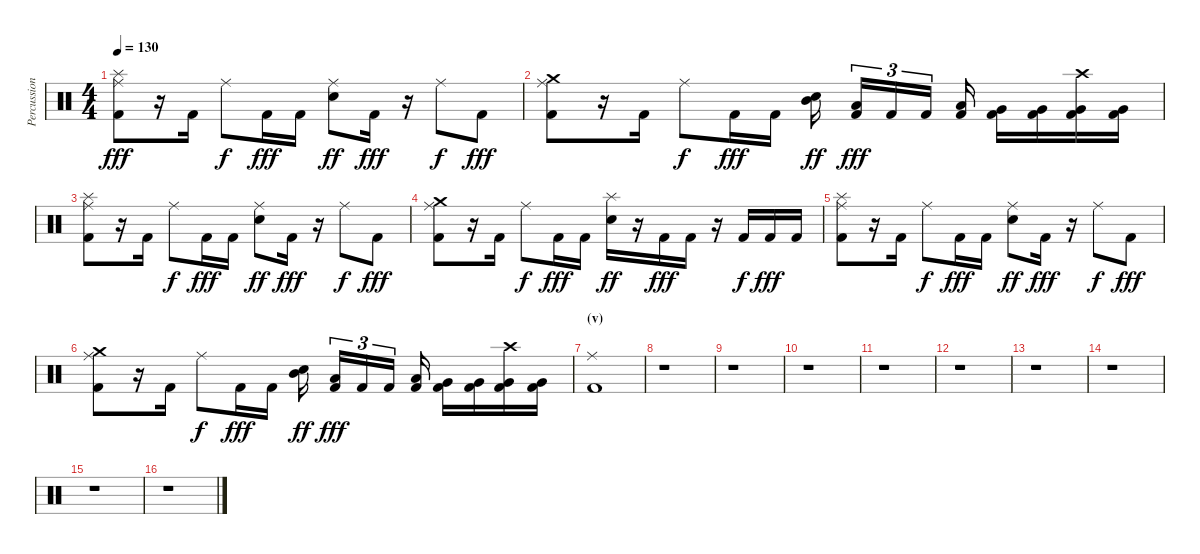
\track ("Percussion" "Percussion") {instrument percussion}
\staff {score}
\articulation defaults
\ts (4 4)
\tempo 130
\clef neutral
\ks c
("Splash (hit)" "Ride (middle)" "Kick (hit) 2").8{dy fff} r.16 "Kick (hit) 2".16 "Ride (middle)".8{dy f} "Kick (hit) 2".16{dy fff} "Kick (hit) 2".16 ("Ride (middle)" "Snare (hit) 2").8{dy ff} "Kick (hit) 2".16{dy fff} r.16 "Ride (middle)".8{dy f} "Kick (hit) 2".8{dy fff} |
("Crash medium (hit)" "Ride (middle)" "Kick (hit) 2").8 r.16 "Kick (hit) 2".16 "Ride (middle)".8{dy f} "Kick (hit) 2".16{dy fff} "Kick (hit) 2".16 ("Mid Tom (hit)" "Snare (hit) 2").16{dy ff} ("Low Tom (hit)" "Kick (hit) 2").16{tu (3 2) dy fff} "Kick (hit) 2".16{tu (3 2)} "Kick (hit) 2".16{tu (3 2)} ("Low Tom (hit)" "Kick (hit) 2").16 ("Very Low Tom (hit)" "Kick (hit) 2").16 ("Very Low Tom (hit)" "Kick (hit) 2").16 ("Crash high (hit)" "Very Low Tom (hit)" "Kick (hit) 2").16 ("Very Low Tom (hit)" "Kick (hit) 2").16 |
("Splash (hit)" "Ride (middle)" "Kick (hit) 2").8 r.16 "Kick (hit) 2".16 "Ride (middle)".8{dy f} "Kick (hit) 2".16{dy fff} "Kick (hit) 2".16 ("Ride (middle)" "Snare (hit) 2").8{dy ff} "Kick (hit) 2".16{dy fff} r.16 "Ride (middle)".8{dy f} "Kick (hit) 2".8{dy fff} |
("Crash medium (hit)" "Ride (middle)" "Kick (hit) 2").8 r.16 "Kick (hit) 2".16 "Ride (middle)".8{dy f} "Kick (hit) 2".16{dy fff} "Kick (hit) 2".16 ("Splash (hit)" "Snare (hit) 2").16{dy ff} r.16 "Kick (hit) 2".16{dy fff} "Kick (hit) 2".16 r.16 "Kick (hit) 2".16{dy f} "Kick (hit) 2".16{dy fff} "Kick (hit) 2".16 |
("Splash (hit)" "Ride (middle)" "Kick (hit) 2").8 r.16 "Kick (hit) 2".16 "Ride (middle)".8{dy f} "Kick (hit) 2".16{dy fff} "Kick (hit) 2".16 ("Ride (middle)" "Snare (hit) 2").8{dy ff} "Kick (hit) 2".16{dy fff} r.16 "Ride (middle)".8{dy f} "Kick (hit) 2".8{dy fff} |
("Crash medium (hit)" "Ride (middle)" "Kick (hit) 2").8 r.16 "Kick (hit) 2".16 "Ride (middle)".8{dy f} "Kick (hit) 2".16{dy fff} "Kick (hit) 2".16 ("Mid Tom (hit)" "Snare (hit) 2").16{dy ff} ("Low Tom (hit)" "Kick (hit) 2").16{tu (3 2) dy fff} "Kick (hit) 2".16{tu (3 2)} "Kick (hit) 2".16{tu (3 2)} ("Low Tom (hit)" "Kick (hit) 2").16 ("Very Low Tom (hit)" "Kick (hit) 2").16 ("Very Low Tom (hit)" "Kick (hit) 2").16 ("Crash high (hit)" "Very Low Tom (hit)" "Kick (hit) 2").16 ("Very Low Tom (hit)" "Kick (hit) 2").16 |
\section ("" "(v)")
("Ride (middle)" "Kick (hit) 2").1 |
r.1 |
r.1 |
r.1 |
r.1 |
r.1 |
r.1 |
r.1 |
r.1 |
r.1
